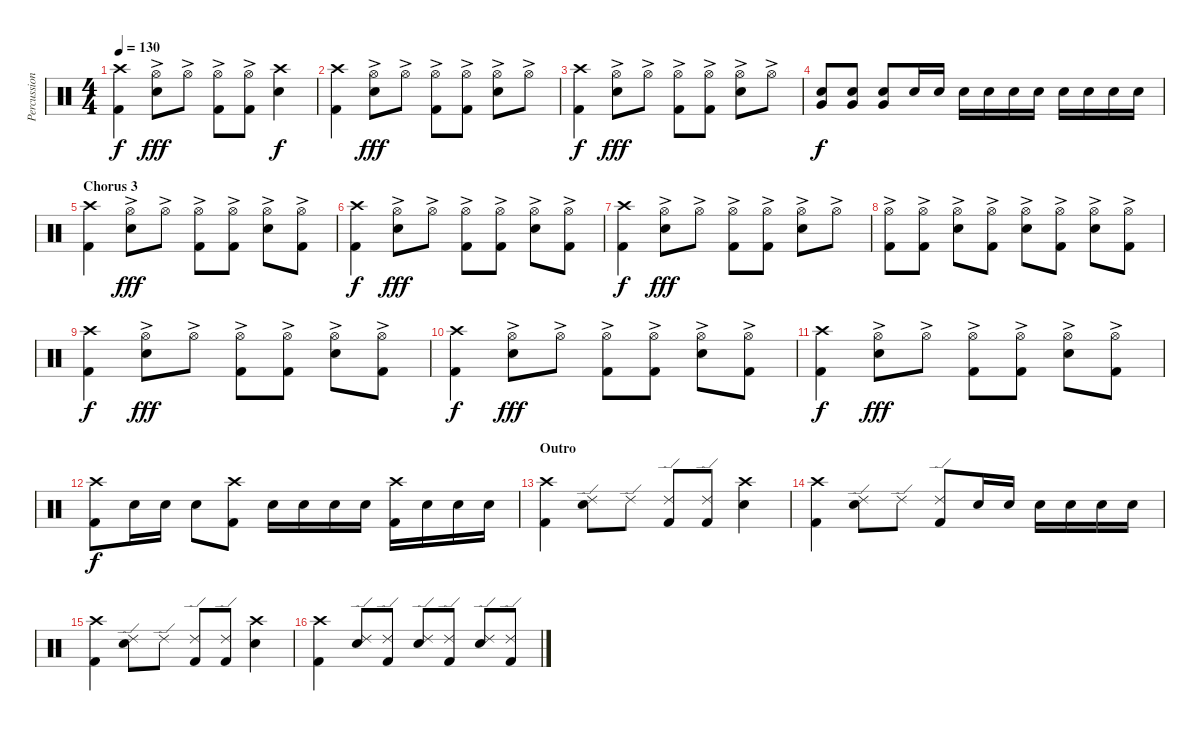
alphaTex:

\track ("Percussion" "Percussion") {instrument percussion}
\staff {score}
\articulation defaults
\ts (4 4)
\tempo 130
\clef neutral
\ks c
("Crash high (hit)" "Kick (hit) 2").4{dy f} ("Hi-Hat (open)"{ac} "Electric Snare (hit)").8{dy fff} "Hi-Hat (open)"{ac}.8 ("Hi-Hat (open)"{ac} "Kick (hit) 2").8 ("Hi-Hat (open)"{ac} "Kick (hit) 2").8 ("Crash high (hit)" "Electric Snare (hit)").4{dy f} |
("Crash high (hit)" "Kick (hit) 2").4 ("Hi-Hat (open)"{ac} "Electric Snare (hit)").8{dy fff} "Hi-Hat (open)"{ac}.8 ("Hi-Hat (open)"{ac} "Kick (hit) 2").8 ("Hi-Hat (open)"{ac} "Kick (hit) 2").8 ("Hi-Hat (open)"{ac} "Electric Snare (hit)").8 "Hi-Hat (open)"{ac}.8 |
("Crash high (hit)" "Kick (hit) 2").4{dy f} ("Hi-Hat (open)"{ac} "Electric Snare (hit)").8{dy fff} "Hi-Hat (open)"{ac}.8 ("Hi-Hat (open)"{ac} "Kick (hit) 2").8 ("Hi-Hat (open)"{ac} "Kick (hit) 2").8 ("Hi-Hat (open)"{ac} "Electric Snare (hit)").8 "Hi-Hat (open)"{ac}.8 |
("Very Low Tom (hit)" "Electric Snare (hit)").8{dy f} ("Very Low Tom (hit)" "Electric Snare (hit)").8 ("Very Low Tom (hit)" "Electric Snare (hit)").8 "Electric Snare (hit)".16 "Electric Snare (hit)".16 "Electric Snare (hit)".16 "Electric Snare (hit)".16 "Electric Snare (hit)".16 "Electric Snare (hit)".16 "Electric Snare (hit)".16 "Electric Snare (hit)".16 "Electric Snare (hit)".16 "Electric Snare (hit)".16 |
\section ("" "Chorus 3")
("Crash high (hit)" "Kick (hit) 2").4 ("Hi-Hat (open)"{ac} "Electric Snare (hit)").8{dy fff} "Hi-Hat (open)"{ac}.8 ("Hi-Hat (open)"{ac} "Kick (hit) 2").8 ("Hi-Hat (open)"{ac} "Kick (hit) 2").8 ("Hi-Hat (open)"{ac} "Electric Snare (hit)").8 ("Hi-Hat (open)"{ac} "Kick (hit) 2").8 |
("Crash high (hit)" "Kick (hit) 2").4{dy f} ("Hi-Hat (open)"{ac} "Electric Snare (hit)").8{dy fff} "Hi-Hat (open)"{ac}.8 ("Hi-Hat (open)"{ac} "Kick (hit) 2").8 ("Hi-Hat (open)"{ac} "Kick (hit) 2").8 ("Hi-Hat (open)"{ac} "Electric Snare (hit)").8 ("Hi-Hat (open)"{ac} "Kick (hit) 2").8 |
("Crash high (hit)" "Kick (hit) 2").4{dy f} ("Hi-Hat (open)"{ac} "Electric Snare (hit)").8{dy fff} "Hi-Hat (open)"{ac}.8 ("Hi-Hat (open)"{ac} "Kick (hit) 2").8 ("Hi-Hat (open)"{ac} "Kick (hit) 2").8 ("Hi-Hat (open)"{ac} "Electric Snare (hit)").8 "Hi-Hat (open)"{ac}.8 |
("Hi-Hat (open)"{ac} "Kick (hit) 2").8 ("Hi-Hat (open)"{ac} "Kick (hit) 2").8 ("Hi-Hat (open)"{ac} "Electric Snare (hit)").8 ("Hi-Hat (open)"{ac} "Kick (hit) 2").8 ("Hi-Hat (open)"{ac} "Electric Snare (hit)").8 ("Hi-Hat (open)"{ac} "Kick (hit) 2").8 ("Hi-Hat (open)"{ac} "Electric Snare (hit)").8 ("Hi-Hat (open)"{ac} "Kick (hit) 2").8 |
("Crash high (hit)" "Kick (hit) 2").4{dy f} ("Hi-Hat (open)"{ac} "Electric Snare (hit)").8{dy fff} "Hi-Hat (open)"{ac}.8 ("Hi-Hat (open)"{ac} "Kick (hit) 2").8 ("Hi-Hat (open)"{ac} "Kick (hit) 2").8 ("Hi-Hat (open)"{ac} "Electric Snare (hit)").8 ("Hi-Hat (open)"{ac} "Kick (hit) 2").8 |
("Crash high (hit)" "Kick (hit) 2").4{dy f} ("Hi-Hat (open)"{ac} "Electric Snare (hit)").8{dy fff} "Hi-Hat (open)"{ac}.8 ("Hi-Hat (open)"{ac} "Kick (hit) 2").8 ("Hi-Hat (open)"{ac} "Kick (hit) 2").8 ("Hi-Hat (open)"{ac} "Electric Snare (hit)").8 ("Hi-Hat (open)"{ac} "Kick (hit) 2").8 |
("Crash high (hit)" "Kick (hit) 2").4{dy f} ("Hi-Hat (open)"{ac} "Electric Snare (hit)").8{dy fff} "Hi-Hat (open)"{ac}.8 ("Hi-Hat (open)"{ac} "Kick (hit) 2").8 ("Hi-Hat (open)"{ac} "Kick (hit) 2").8 ("Hi-Hat (open)"{ac} "Electric Snare (hit)").8 ("Hi-Hat (open)"{ac} "Kick (hit) 2").8 |
("Crash high (hit)" "Kick (hit) 2").8{dy f} "Electric Snare (hit)".16 "Electric Snare (hit)".16 "Electric Snare (hit)".8 ("Crash high (hit)" "Kick (hit) 2").8 "Electric Snare (hit)".16 "Electric Snare (hit)".16 "Electric Snare (hit)".16 "Electric Snare (hit)".16 ("Crash high (hit)" "Kick (hit) 2").16 "Electric Snare (hit)".16 "Electric Snare (hit)".16 "Electric Snare (hit)".16 |
\section ("" "Outro")
("Crash high (hit)" "Kick (hit) 2").4 ("Ride (edge) 2" "Electric Snare (hit)").8 "Ride (edge) 2".8 ("Ride (edge) 2" "Kick (hit) 2").8 ("Ride (edge) 2" "Kick (hit) 2").8 ("Crash high (hit)" "Electric Snare (hit)").4 |
("Crash high (hit)" "Kick (hit) 2").4 ("Ride (edge) 2" "Electric Snare (hit)").8 "Ride (edge) 2".8 ("Ride (edge) 2" "Kick (hit) 2").8 "Electric Snare (hit)".16 "Electric Snare (hit)".16 "Electric Snare (hit)".16 "Electric Snare (hit)".16 "Electric Snare (hit)".16 "Electric Snare (hit)".16 |
("Crash high (hit)" "Kick (hit) 2").4 ("Ride (edge) 2" "Electric Snare (hit)").8 "Ride (edge) 2".8 ("Ride (edge) 2" "Kick (hit) 2").8 ("Ride (edge) 2" "Kick (hit) 2").8 ("Crash high (hit)" "Electric Snare (hit)").4 |
("Crash high (hit)" "Kick (hit) 2").4 ("Ride (edge) 2" "Electric Snare (hit)").8 ("Ride (edge) 2" "Kick (hit) 2").8 ("Ride (edge) 2" "Electric Snare (hit)").8 ("Ride (edge) 2" "Kick (hit) 2").8 ("Ride (edge) 2" "Electric Snare (hit)").8 ("Ride (edge) 2" "Kick (hit) 2").8
